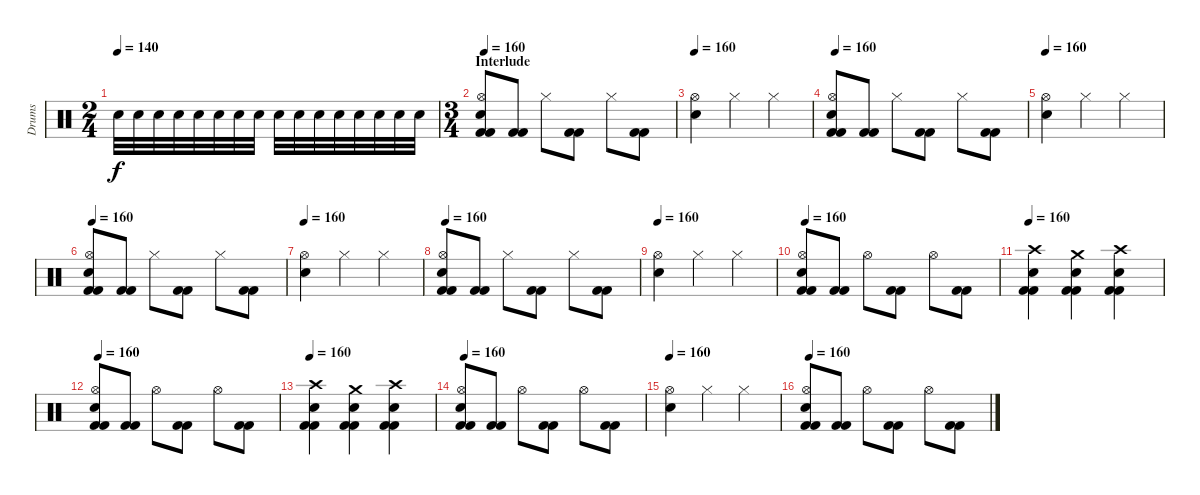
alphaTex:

\track ("Drums" "Drums") {instrument percussion}
\staff {score}
\articulation defaults
\ts (2 4)
\tempo 140
\clef neutral
\ks c "Electric Snare (hit)".32{dy f} "Electric Snare (hit)".32 "Electric Snare (hit)".32 "Electric Snare (hit)".32 "Electric Snare (hit)".32 "Electric Snare (hit)".32 "Electric Snare (hit)".32 "Electric Snare (hit)".32 "Electric Snare (hit)".32 "Electric Snare (hit)".32 "Electric Snare (hit)".32 "Electric Snare (hit)".32 "Electric Snare (hit)".32 "Electric Snare (hit)".32 "Electric Snare (hit)".32 "Electric Snare (hit)".32
|
\ts (3 4)
\section ("" "Interlude")
\tempo 160
("Hi-Hat (open)" "Kick (hit) 2" "Electric Snare (hit)" "Kick (hit) 2").8 ("Kick (hit) 2" "Kick (hit) 2").8 "Hi-Hat (closed)".8 ("Kick (hit) 2" "Kick (hit) 2").8 "Hi-Hat (closed)".8 ("Kick (hit) 2" "Kick (hit) 2").8 |
\tempo 160
("Hi-Hat (open)" "Electric Snare (hit)").4 "Hi-Hat (closed)".4 "Hi-Hat (closed)".4 |
\tempo 160
("Hi-Hat (open)" "Kick (hit) 2" "Electric Snare (hit)" "Kick (hit) 2").8 ("Kick (hit) 2" "Kick (hit) 2").8 "Hi-Hat (closed)".8 ("Kick (hit) 2" "Kick (hit) 2").8 "Hi-Hat (closed)".8 ("Kick (hit) 2" "Kick (hit) 2").8 |
\tempo 160
("Hi-Hat (open)" "Electric Snare (hit)").4 "Hi-Hat (closed)".4 "Hi-Hat (closed)".4 |
\tempo 160
("Hi-Hat (open)" "Kick (hit) 2" "Electric Snare (hit)" "Kick (hit) 2").8 ("Kick (hit) 2" "Kick (hit) 2").8 "Hi-Hat (closed)".8 ("Kick (hit) 2" "Kick (hit) 2").8 "Hi-Hat (closed)".8 ("Kick (hit) 2" "Kick (hit) 2").8 |
\tempo 160
("Hi-Hat (open)" "Electric Snare (hit)").4 "Hi-Hat (closed)".4 "Hi-Hat (closed)".4 |
\tempo 160
("Hi-Hat (open)" "Kick (hit) 2" "Electric Snare (hit)" "Kick (hit) 2").8 ("Kick (hit) 2" "Kick (hit) 2").8 "Hi-Hat (closed)".8 ("Kick (hit) 2" "Kick (hit) 2").8 "Hi-Hat (closed)".8 ("Kick (hit) 2" "Kick (hit) 2").8 |
\tempo 160
("Hi-Hat (open)" "Electric Snare (hit)").4 "Hi-Hat (closed)".4 "Hi-Hat (closed)".4 |
\tempo 160
("Hi-Hat (open)" "Kick (hit) 2" "Electric Snare (hit)" "Kick (hit) 2").8 ("Kick (hit) 2" "Kick (hit) 2").8 "Hi-Hat (open)".8 ("Kick (hit) 2" "Kick (hit) 2").8 "Hi-Hat (open)".8 ("Kick (hit) 2" "Kick (hit) 2").8 |
\tempo 160
("Crash high (hit)" "Kick (hit) 2" "Electric Snare (hit)" "Kick (hit) 2").4 ("Crash medium (hit)" "Kick (hit) 2" "Electric Snare (hit)" "Kick (hit) 2").4 ("Crash high (hit)" "Kick (hit) 2" "Electric Snare (hit)" "Kick (hit) 2").4 |
\tempo 160
("Hi-Hat (open)" "Kick (hit) 2" "Electric Snare (hit)" "Kick (hit) 2").8 ("Kick (hit) 2" "Kick (hit) 2").8 "Hi-Hat (open)".8 ("Kick (hit) 2" "Kick (hit) 2").8 "Hi-Hat (open)".8 ("Kick (hit) 2" "Kick (hit) 2").8 |
\tempo 160
("Crash high (hit)" "Kick (hit) 2" "Electric Snare (hit)" "Kick (hit) 2").4 ("Crash medium (hit)" "Kick (hit) 2" "Electric Snare (hit)" "Kick (hit) 2").4 ("Crash high (hit)" "Kick (hit) 2" "Electric Snare (hit)" "Kick (hit) 2").4 |
\tempo 160
("Hi-Hat (open)" "Kick (hit) 2" "Electric Snare (hit)" "Kick (hit) 2").8 ("Kick (hit) 2" "Kick (hit) 2").8 "Hi-Hat (open)".8 ("Kick (hit) 2" "Kick (hit) 2").8 "Hi-Hat (open)".8 ("Kick (hit) 2" "Kick (hit) 2").8 |
\tempo 160
("Hi-Hat (open)" "Electric Snare (hit)").4 "Hi-Hat (closed)".4 "Hi-Hat (closed)".4 |
\tempo 160
("Hi-Hat (open)" "Kick (hit) 2" "Electric Snare (hit)" "Kick (hit) 2").8 ("Kick (hit) 2" "Kick (hit) 2").8 "Hi-Hat (open)".8 ("Kick (hit) 2" "Kick (hit) 2").8 "Hi-Hat (open)".8 ("Kick (hit) 2" "Kick (hit) 2").8
